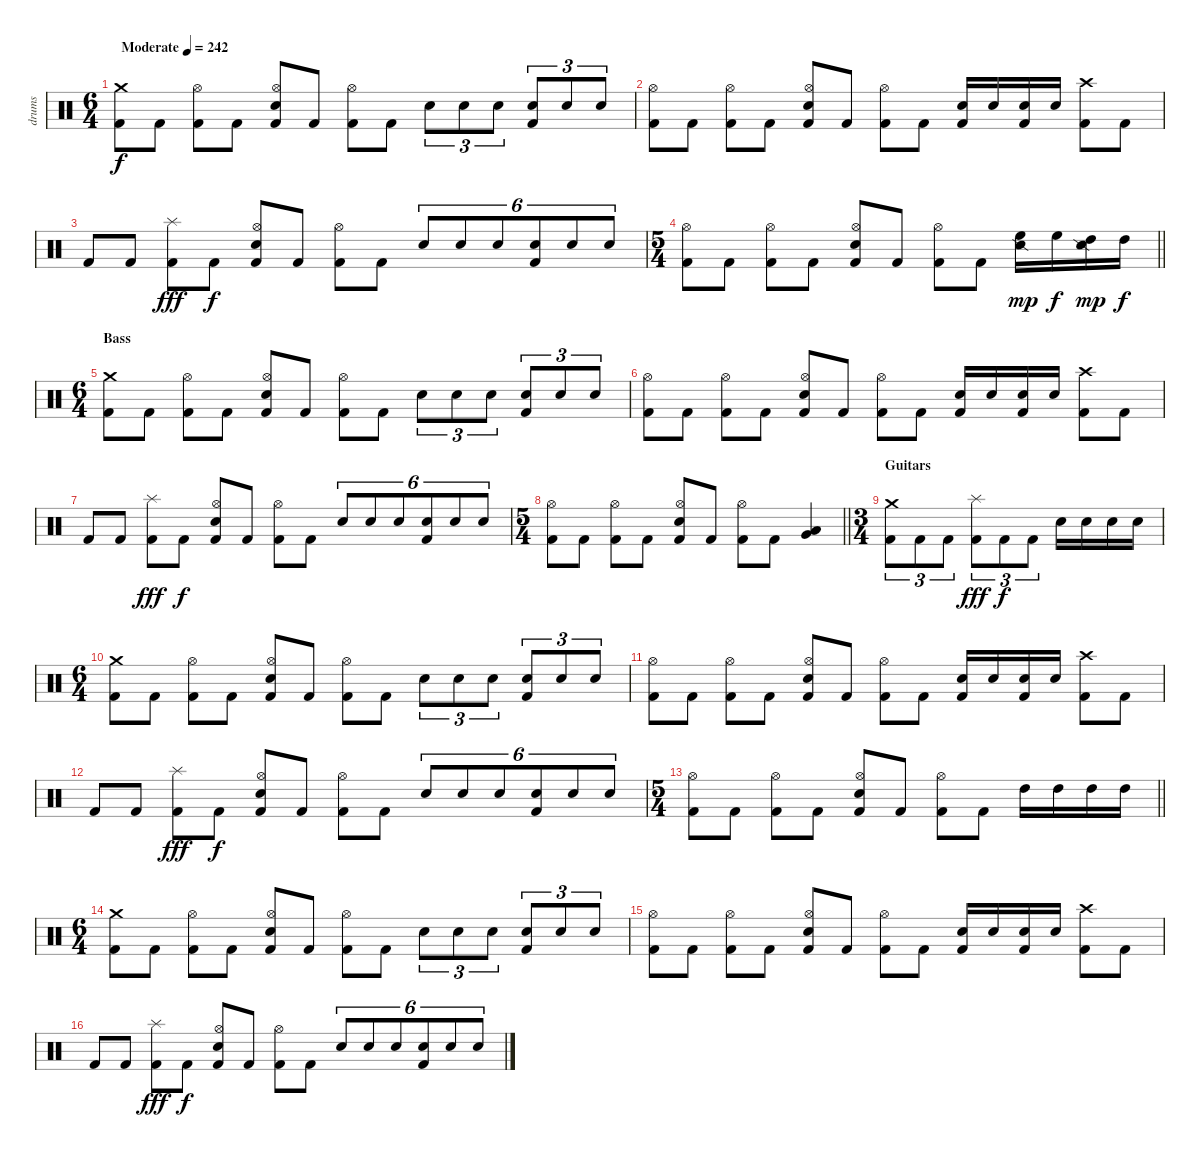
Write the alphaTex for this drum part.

\track ("drums" "drums") {instrument percussion}
\staff {score}
\articulation defaults
\ts (6 4)
\tempo (242 "Moderate")
\clef neutral
\ks c
("Crash medium (hit)" "Kick (hit) 2").8{dy f} "Kick (hit) 2".8 ("Hi-Hat (open)" "Kick (hit) 2").8 "Kick (hit) 2".8 ("Hi-Hat (open)" "Electric Snare (hit)" "Kick (hit) 2").8 "Kick (hit) 2".8 ("Hi-Hat (open)" "Kick (hit) 2").8 "Kick (hit) 2".8 "Electric Snare (hit)".8{tu (3 2)} "Electric Snare (hit)".8{tu (3 2)} "Electric Snare (hit)".8{tu (3 2)} ("Electric Snare (hit)" "Kick (hit) 2").8{tu (3 2)} "Electric Snare (hit)".8{tu (3 2)} "Electric Snare (hit)".8{tu (3 2)} |
("Hi-Hat (open)" "Kick (hit) 2").8 "Kick (hit) 2".8 ("Hi-Hat (open)" "Kick (hit) 2").8 "Kick (hit) 2".8 ("Hi-Hat (open)" "Electric Snare (hit)" "Kick (hit) 2").8 "Kick (hit) 2".8 ("Hi-Hat (open)" "Kick (hit) 2").8 "Kick (hit) 2".8 ("Electric Snare (hit)" "Kick (hit) 2").16 "Electric Snare (hit)".16 ("Electric Snare (hit)" "Kick (hit) 2").16 "Electric Snare (hit)".16 ("Crash high (hit)" "Kick (hit) 2").8 "Kick (hit) 2".8 |
"Kick (hit) 2".8 "Kick (hit) 2".8 ("Splash (hit)" "Kick (hit) 2").8{dy fff} "Kick (hit) 2".8{dy f} ("Hi-Hat (open)" "Electric Snare (hit)" "Kick (hit) 2").8 "Kick (hit) 2".8 ("Hi-Hat (open)" "Kick (hit) 2").8 "Kick (hit) 2".8 "Electric Snare (hit)".8{tu (6 4)} "Electric Snare (hit)".8{tu (6 4)} "Electric Snare (hit)".8{tu (6 4)} ("Electric Snare (hit)" "Kick (hit) 2").8{tu (6 4)} "Electric Snare (hit)".8{tu (6 4)} "Electric Snare (hit)".8{tu (6 4)} |
\ts (5 4)
\barLineRight lightlight
("Hi-Hat (open)" "Kick (hit) 2").8 "Kick (hit) 2".8 ("Hi-Hat (open)" "Kick (hit) 2").8 "Kick (hit) 2".8 ("Hi-Hat (open)" "Electric Snare (hit)" "Kick (hit) 2").8 "Kick (hit) 2".8 ("Hi-Hat (open)" "Kick (hit) 2").8 "Kick (hit) 2".8 ("High Floor Tom (hit)" "Snare (side stick) 2").16{dy mp} "High Floor Tom (hit)".16{dy f} ("High Tom (hit)" "Snare (side stick) 2").16{dy mp} "High Tom (hit)".16{dy f} |
\ts (6 4)
\section ("" "Bass")
("Crash medium (hit)" "Kick (hit) 2").8 "Kick (hit) 2".8 ("Hi-Hat (open)" "Kick (hit) 2").8 "Kick (hit) 2".8 ("Hi-Hat (open)" "Electric Snare (hit)" "Kick (hit) 2").8 "Kick (hit) 2".8 ("Hi-Hat (open)" "Kick (hit) 2").8 "Kick (hit) 2".8 "Electric Snare (hit)".8{tu (3 2)} "Electric Snare (hit)".8{tu (3 2)} "Electric Snare (hit)".8{tu (3 2)} ("Electric Snare (hit)" "Kick (hit) 2").8{tu (3 2)} "Electric Snare (hit)".8{tu (3 2)} "Electric Snare (hit)".8{tu (3 2)} |
("Hi-Hat (open)" "Kick (hit) 2").8 "Kick (hit) 2".8 ("Hi-Hat (open)" "Kick (hit) 2").8 "Kick (hit) 2".8 ("Hi-Hat (open)" "Electric Snare (hit)" "Kick (hit) 2").8 "Kick (hit) 2".8 ("Hi-Hat (open)" "Kick (hit) 2").8 "Kick (hit) 2".8 ("Electric Snare (hit)" "Kick (hit) 2").16 "Electric Snare (hit)".16 ("Electric Snare (hit)" "Kick (hit) 2").16 "Electric Snare (hit)".16 ("Crash high (hit)" "Kick (hit) 2").8 "Kick (hit) 2".8 |
"Kick (hit) 2".8 "Kick (hit) 2".8 ("Splash (hit)" "Kick (hit) 2").8{dy fff} "Kick (hit) 2".8{dy f} ("Hi-Hat (open)" "Electric Snare (hit)" "Kick (hit) 2").8 "Kick (hit) 2".8 ("Hi-Hat (open)" "Kick (hit) 2").8 "Kick (hit) 2".8 "Electric Snare (hit)".8{tu (6 4)} "Electric Snare (hit)".8{tu (6 4)} "Electric Snare (hit)".8{tu (6 4)} ("Electric Snare (hit)" "Kick (hit) 2").8{tu (6 4)} "Electric Snare (hit)".8{tu (6 4)} "Electric Snare (hit)".8{tu (6 4)} |
\ts (5 4)
\barLineRight lightlight
("Hi-Hat (open)" "Kick (hit) 2").8 "Kick (hit) 2".8 ("Hi-Hat (open)" "Kick (hit) 2").8 "Kick (hit) 2".8 ("Hi-Hat (open)" "Electric Snare (hit)" "Kick (hit) 2").8 "Kick (hit) 2".8 ("Hi-Hat (open)" "Kick (hit) 2").8 "Kick (hit) 2".8 ("Low Tom (hit)" "Very Low Tom (hit)").4 |
\ts (3 4)
\section ("" "Guitars")
("Crash medium (hit)" "Kick (hit) 2").8{tu (3 2)} "Kick (hit) 2".8{tu (3 2)} "Kick (hit) 2".8{tu (3 2)} ("Splash (hit)" "Kick (hit) 2").8{tu (3 2) dy fff} "Kick (hit) 2".8{tu (3 2) dy f} "Kick (hit) 2".8{tu (3 2)} "Electric Snare (hit)".16 "Electric Snare (hit)".16 "Electric Snare (hit)".16 "Electric Snare (hit)".16 |
\ts (6 4)
("Crash medium (hit)" "Kick (hit) 2").8 "Kick (hit) 2".8 ("Hi-Hat (open)" "Kick (hit) 2").8 "Kick (hit) 2".8 ("Hi-Hat (open)" "Electric Snare (hit)" "Kick (hit) 2").8 "Kick (hit) 2".8 ("Hi-Hat (open)" "Kick (hit) 2").8 "Kick (hit) 2".8 "Electric Snare (hit)".8{tu (3 2)} "Electric Snare (hit)".8{tu (3 2)} "Electric Snare (hit)".8{tu (3 2)} ("Electric Snare (hit)" "Kick (hit) 2").8{tu (3 2)} "Electric Snare (hit)".8{tu (3 2)} "Electric Snare (hit)".8{tu (3 2)} |
("Hi-Hat (open)" "Kick (hit) 2").8 "Kick (hit) 2".8 ("Hi-Hat (open)" "Kick (hit) 2").8 "Kick (hit) 2".8 ("Hi-Hat (open)" "Electric Snare (hit)" "Kick (hit) 2").8 "Kick (hit) 2".8 ("Hi-Hat (open)" "Kick (hit) 2").8 "Kick (hit) 2".8 ("Electric Snare (hit)" "Kick (hit) 2").16 "Electric Snare (hit)".16 ("Electric Snare (hit)" "Kick (hit) 2").16 "Electric Snare (hit)".16 ("Crash high (hit)" "Kick (hit) 2").8 "Kick (hit) 2".8 |
"Kick (hit) 2".8 "Kick (hit) 2".8 ("Splash (hit)" "Kick (hit) 2").8{dy fff} "Kick (hit) 2".8{dy f} ("Hi-Hat (open)" "Electric Snare (hit)" "Kick (hit) 2").8 "Kick (hit) 2".8 ("Hi-Hat (open)" "Kick (hit) 2").8 "Kick (hit) 2".8 "Electric Snare (hit)".8{tu (6 4)} "Electric Snare (hit)".8{tu (6 4)} "Electric Snare (hit)".8{tu (6 4)} ("Electric Snare (hit)" "Kick (hit) 2").8{tu (6 4)} "Electric Snare (hit)".8{tu (6 4)} "Electric Snare (hit)".8{tu (6 4)} |
\ts (5 4)
\barLineRight lightlight
("Hi-Hat (open)" "Kick (hit) 2").8 "Kick (hit) 2".8 ("Hi-Hat (open)" "Kick (hit) 2").8 "Kick (hit) 2".8 ("Hi-Hat (open)" "Electric Snare (hit)" "Kick (hit) 2").8 "Kick (hit) 2".8 ("Hi-Hat (open)" "Kick (hit) 2").8 "Kick (hit) 2".8 "High Tom (hit)".16 "High Tom (hit)".16 "High Tom (hit)".16 "High Tom (hit)".16 |
\ts (6 4)
("Crash medium (hit)" "Kick (hit) 2").8 "Kick (hit) 2".8 ("Hi-Hat (open)" "Kick (hit) 2").8 "Kick (hit) 2".8 ("Hi-Hat (open)" "Electric Snare (hit)" "Kick (hit) 2").8 "Kick (hit) 2".8 ("Hi-Hat (open)" "Kick (hit) 2").8 "Kick (hit) 2".8 "Electric Snare (hit)".8{tu (3 2)} "Electric Snare (hit)".8{tu (3 2)} "Electric Snare (hit)".8{tu (3 2)} ("Electric Snare (hit)" "Kick (hit) 2").8{tu (3 2)} "Electric Snare (hit)".8{tu (3 2)} "Electric Snare (hit)".8{tu (3 2)} |
("Hi-Hat (open)" "Kick (hit) 2").8 "Kick (hit) 2".8 ("Hi-Hat (open)" "Kick (hit) 2").8 "Kick (hit) 2".8 ("Hi-Hat (open)" "Electric Snare (hit)" "Kick (hit) 2").8 "Kick (hit) 2".8 ("Hi-Hat (open)" "Kick (hit) 2").8 "Kick (hit) 2".8 ("Electric Snare (hit)" "Kick (hit) 2").16 "Electric Snare (hit)".16 ("Electric Snare (hit)" "Kick (hit) 2").16 "Electric Snare (hit)".16 ("Crash high (hit)" "Kick (hit) 2").8 "Kick (hit) 2".8 |
"Kick (hit) 2".8 "Kick (hit) 2".8 ("Splash (hit)" "Kick (hit) 2").8{dy fff} "Kick (hit) 2".8{dy f} ("Hi-Hat (open)" "Electric Snare (hit)" "Kick (hit) 2").8 "Kick (hit) 2".8 ("Hi-Hat (open)" "Kick (hit) 2").8 "Kick (hit) 2".8 "Electric Snare (hit)".8{tu (6 4)} "Electric Snare (hit)".8{tu (6 4)} "Electric Snare (hit)".8{tu (6 4)} ("Electric Snare (hit)" "Kick (hit) 2").8{tu (6 4)} "Electric Snare (hit)".8{tu (6 4)} "Electric Snare (hit)".8{tu (6 4)}
